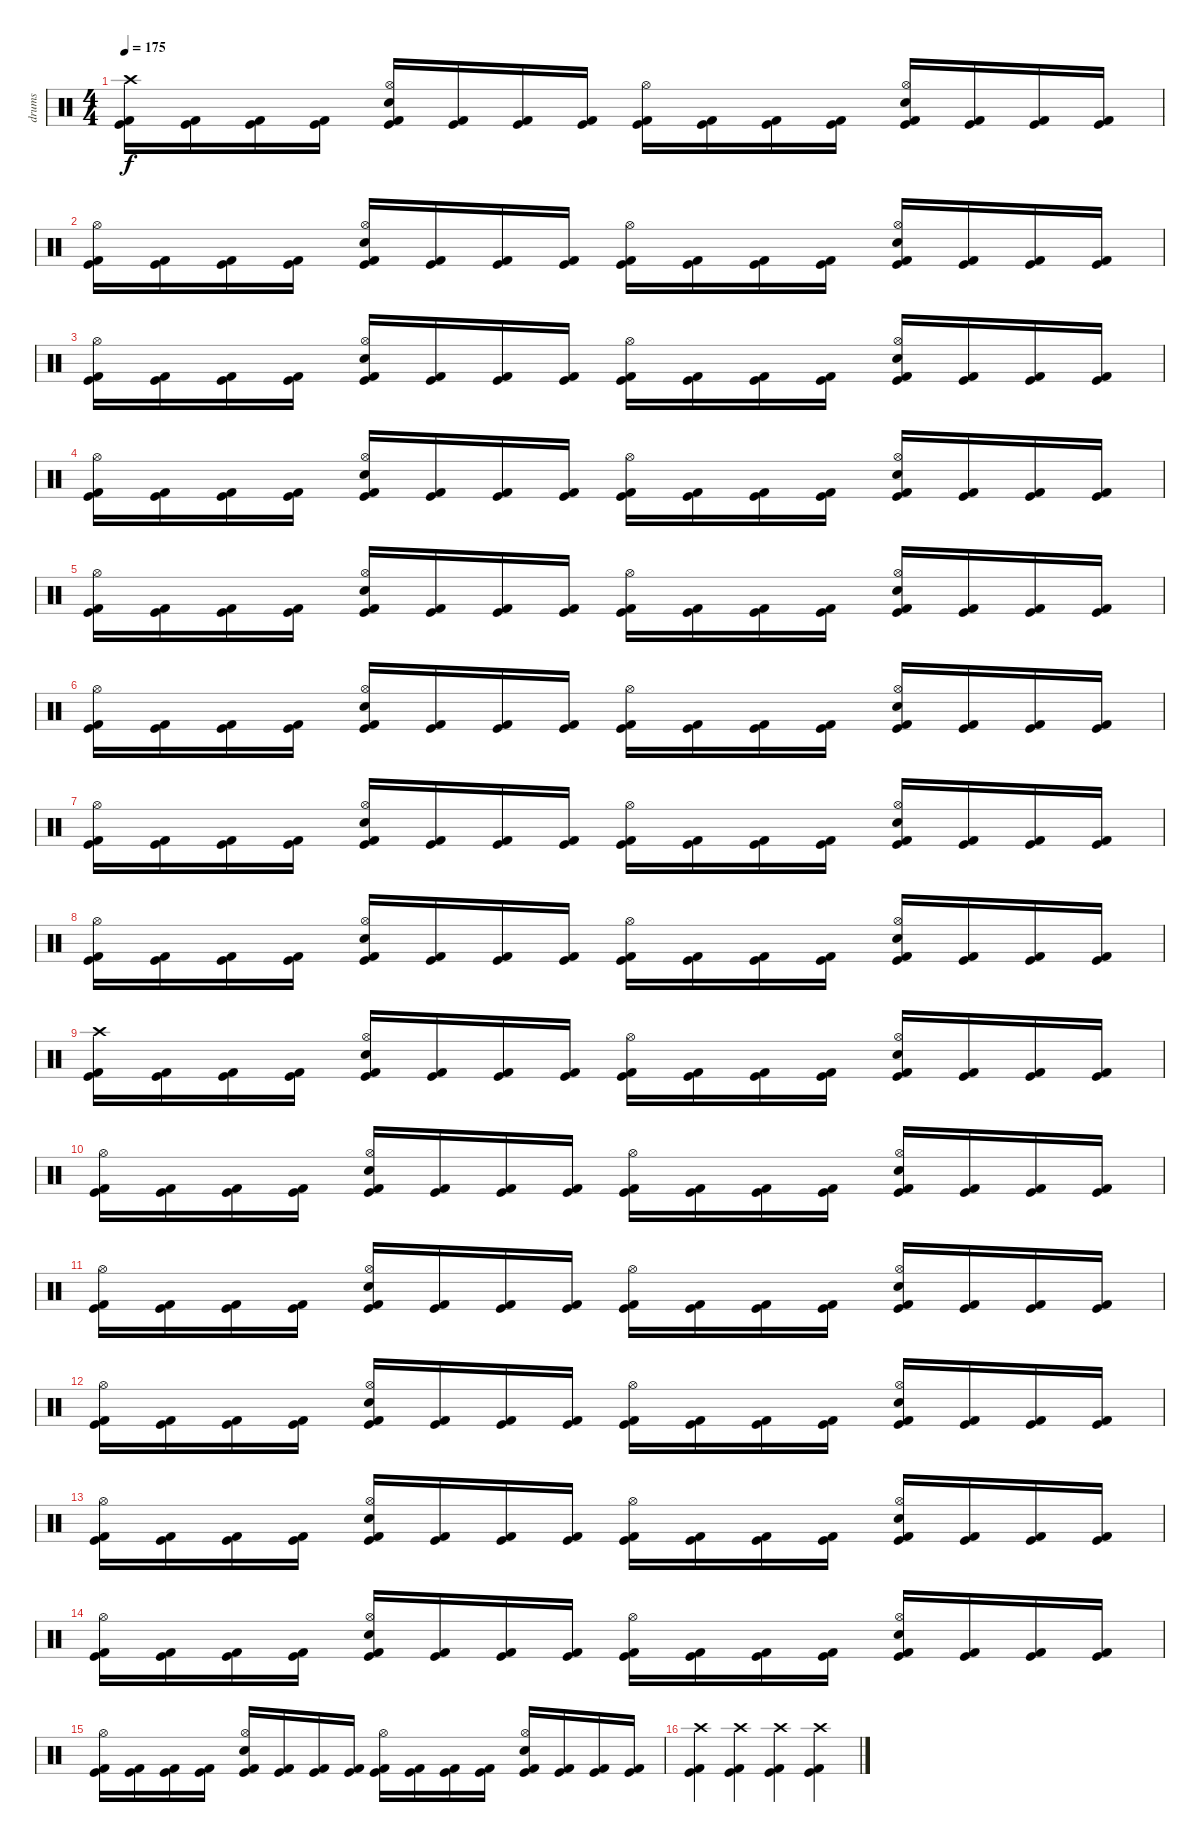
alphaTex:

\track ("drums" "drums") {instrument percussion}
\staff {score}
\articulation defaults
\ts (4 4)
\tempo 175
\clef neutral
\ks c
("Crash high (hit)" "Kick (hit)" "Kick (hit) 2").16{dy f} ("Kick (hit)" "Kick (hit) 2").16 ("Kick (hit)" "Kick (hit) 2").16 ("Kick (hit)" "Kick (hit) 2").16 ("Hi-Hat (open)" "Electric Snare (hit)" "Kick (hit)" "Kick (hit) 2").16 ("Kick (hit)" "Kick (hit) 2").16 ("Kick (hit)" "Kick (hit) 2").16 ("Kick (hit)" "Kick (hit) 2").16 ("Hi-Hat (open)" "Kick (hit)" "Kick (hit) 2").16 ("Kick (hit)" "Kick (hit) 2").16 ("Kick (hit)" "Kick (hit) 2").16 ("Kick (hit)" "Kick (hit) 2").16 ("Hi-Hat (open)" "Electric Snare (hit)" "Kick (hit)" "Kick (hit) 2").16 ("Kick (hit)" "Kick (hit) 2").16 ("Kick (hit)" "Kick (hit) 2").16 ("Kick (hit)" "Kick (hit) 2").16 |
("Hi-Hat (open)" "Kick (hit)" "Kick (hit) 2").16 ("Kick (hit)" "Kick (hit) 2").16 ("Kick (hit)" "Kick (hit) 2").16 ("Kick (hit)" "Kick (hit) 2").16 ("Hi-Hat (open)" "Electric Snare (hit)" "Kick (hit)" "Kick (hit) 2").16 ("Kick (hit)" "Kick (hit) 2").16 ("Kick (hit)" "Kick (hit) 2").16 ("Kick (hit)" "Kick (hit) 2").16 ("Hi-Hat (open)" "Kick (hit)" "Kick (hit) 2").16 ("Kick (hit)" "Kick (hit) 2").16 ("Kick (hit)" "Kick (hit) 2").16 ("Kick (hit)" "Kick (hit) 2").16 ("Hi-Hat (open)" "Electric Snare (hit)" "Kick (hit)" "Kick (hit) 2").16 ("Kick (hit)" "Kick (hit) 2").16 ("Kick (hit)" "Kick (hit) 2").16 ("Kick (hit)" "Kick (hit) 2").16 |
("Hi-Hat (open)" "Kick (hit)" "Kick (hit) 2").16 ("Kick (hit)" "Kick (hit) 2").16 ("Kick (hit)" "Kick (hit) 2").16 ("Kick (hit)" "Kick (hit) 2").16 ("Hi-Hat (open)" "Electric Snare (hit)" "Kick (hit)" "Kick (hit) 2").16 ("Kick (hit)" "Kick (hit) 2").16 ("Kick (hit)" "Kick (hit) 2").16 ("Kick (hit)" "Kick (hit) 2").16 ("Hi-Hat (open)" "Kick (hit)" "Kick (hit) 2").16 ("Kick (hit)" "Kick (hit) 2").16 ("Kick (hit)" "Kick (hit) 2").16 ("Kick (hit)" "Kick (hit) 2").16 ("Hi-Hat (open)" "Electric Snare (hit)" "Kick (hit)" "Kick (hit) 2").16 ("Kick (hit)" "Kick (hit) 2").16 ("Kick (hit)" "Kick (hit) 2").16 ("Kick (hit)" "Kick (hit) 2").16 |
("Hi-Hat (open)" "Kick (hit)" "Kick (hit) 2").16 ("Kick (hit)" "Kick (hit) 2").16 ("Kick (hit)" "Kick (hit) 2").16 ("Kick (hit)" "Kick (hit) 2").16 ("Hi-Hat (open)" "Electric Snare (hit)" "Kick (hit)" "Kick (hit) 2").16 ("Kick (hit)" "Kick (hit) 2").16 ("Kick (hit)" "Kick (hit) 2").16 ("Kick (hit)" "Kick (hit) 2").16 ("Hi-Hat (open)" "Kick (hit)" "Kick (hit) 2").16 ("Kick (hit)" "Kick (hit) 2").16 ("Kick (hit)" "Kick (hit) 2").16 ("Kick (hit)" "Kick (hit) 2").16 ("Hi-Hat (open)" "Electric Snare (hit)" "Kick (hit)" "Kick (hit) 2").16 ("Kick (hit)" "Kick (hit) 2").16 ("Kick (hit)" "Kick (hit) 2").16 ("Kick (hit)" "Kick (hit) 2").16 |
("Hi-Hat (open)" "Kick (hit)" "Kick (hit) 2").16 ("Kick (hit)" "Kick (hit) 2").16 ("Kick (hit)" "Kick (hit) 2").16 ("Kick (hit)" "Kick (hit) 2").16 ("Hi-Hat (open)" "Electric Snare (hit)" "Kick (hit)" "Kick (hit) 2").16 ("Kick (hit)" "Kick (hit) 2").16 ("Kick (hit)" "Kick (hit) 2").16 ("Kick (hit)" "Kick (hit) 2").16 ("Hi-Hat (open)" "Kick (hit)" "Kick (hit) 2").16 ("Kick (hit)" "Kick (hit) 2").16 ("Kick (hit)" "Kick (hit) 2").16 ("Kick (hit)" "Kick (hit) 2").16 ("Hi-Hat (open)" "Electric Snare (hit)" "Kick (hit)" "Kick (hit) 2").16 ("Kick (hit)" "Kick (hit) 2").16 ("Kick (hit)" "Kick (hit) 2").16 ("Kick (hit)" "Kick (hit) 2").16 |
("Hi-Hat (open)" "Kick (hit)" "Kick (hit) 2").16 ("Kick (hit)" "Kick (hit) 2").16 ("Kick (hit)" "Kick (hit) 2").16 ("Kick (hit)" "Kick (hit) 2").16 ("Hi-Hat (open)" "Electric Snare (hit)" "Kick (hit)" "Kick (hit) 2").16 ("Kick (hit)" "Kick (hit) 2").16 ("Kick (hit)" "Kick (hit) 2").16 ("Kick (hit)" "Kick (hit) 2").16 ("Hi-Hat (open)" "Kick (hit)" "Kick (hit) 2").16 ("Kick (hit)" "Kick (hit) 2").16 ("Kick (hit)" "Kick (hit) 2").16 ("Kick (hit)" "Kick (hit) 2").16 ("Hi-Hat (open)" "Electric Snare (hit)" "Kick (hit)" "Kick (hit) 2").16 ("Kick (hit)" "Kick (hit) 2").16 ("Kick (hit)" "Kick (hit) 2").16 ("Kick (hit)" "Kick (hit) 2").16 |
("Hi-Hat (open)" "Kick (hit)" "Kick (hit) 2").16 ("Kick (hit)" "Kick (hit) 2").16 ("Kick (hit)" "Kick (hit) 2").16 ("Kick (hit)" "Kick (hit) 2").16 ("Hi-Hat (open)" "Electric Snare (hit)" "Kick (hit)" "Kick (hit) 2").16 ("Kick (hit)" "Kick (hit) 2").16 ("Kick (hit)" "Kick (hit) 2").16 ("Kick (hit)" "Kick (hit) 2").16 ("Hi-Hat (open)" "Kick (hit)" "Kick (hit) 2").16 ("Kick (hit)" "Kick (hit) 2").16 ("Kick (hit)" "Kick (hit) 2").16 ("Kick (hit)" "Kick (hit) 2").16 ("Hi-Hat (open)" "Electric Snare (hit)" "Kick (hit)" "Kick (hit) 2").16 ("Kick (hit)" "Kick (hit) 2").16 ("Kick (hit)" "Kick (hit) 2").16 ("Kick (hit)" "Kick (hit) 2").16 |
("Hi-Hat (open)" "Kick (hit)" "Kick (hit) 2").16 ("Kick (hit)" "Kick (hit) 2").16 ("Kick (hit)" "Kick (hit) 2").16 ("Kick (hit)" "Kick (hit) 2").16 ("Hi-Hat (open)" "Electric Snare (hit)" "Kick (hit)" "Kick (hit) 2").16 ("Kick (hit)" "Kick (hit) 2").16 ("Kick (hit)" "Kick (hit) 2").16 ("Kick (hit)" "Kick (hit) 2").16 ("Hi-Hat (open)" "Kick (hit)" "Kick (hit) 2").16 ("Kick (hit)" "Kick (hit) 2").16 ("Kick (hit)" "Kick (hit) 2").16 ("Kick (hit)" "Kick (hit) 2").16 ("Hi-Hat (open)" "Electric Snare (hit)" "Kick (hit)" "Kick (hit) 2").16 ("Kick (hit)" "Kick (hit) 2").16 ("Kick (hit)" "Kick (hit) 2").16 ("Kick (hit)" "Kick (hit) 2").16 |
("Crash high (hit)" "Kick (hit)" "Kick (hit) 2").16 ("Kick (hit)" "Kick (hit) 2").16 ("Kick (hit)" "Kick (hit) 2").16 ("Kick (hit)" "Kick (hit) 2").16 ("Hi-Hat (open)" "Electric Snare (hit)" "Kick (hit)" "Kick (hit) 2").16 ("Kick (hit)" "Kick (hit) 2").16 ("Kick (hit)" "Kick (hit) 2").16 ("Kick (hit)" "Kick (hit) 2").16 ("Hi-Hat (open)" "Kick (hit)" "Kick (hit) 2").16 ("Kick (hit)" "Kick (hit) 2").16 ("Kick (hit)" "Kick (hit) 2").16 ("Kick (hit)" "Kick (hit) 2").16 ("Hi-Hat (open)" "Electric Snare (hit)" "Kick (hit)" "Kick (hit) 2").16 ("Kick (hit)" "Kick (hit) 2").16 ("Kick (hit)" "Kick (hit) 2").16 ("Kick (hit)" "Kick (hit) 2").16 |
("Hi-Hat (open)" "Kick (hit)" "Kick (hit) 2").16 ("Kick (hit)" "Kick (hit) 2").16 ("Kick (hit)" "Kick (hit) 2").16 ("Kick (hit)" "Kick (hit) 2").16 ("Hi-Hat (open)" "Electric Snare (hit)" "Kick (hit)" "Kick (hit) 2").16 ("Kick (hit)" "Kick (hit) 2").16 ("Kick (hit)" "Kick (hit) 2").16 ("Kick (hit)" "Kick (hit) 2").16 ("Hi-Hat (open)" "Kick (hit)" "Kick (hit) 2").16 ("Kick (hit)" "Kick (hit) 2").16 ("Kick (hit)" "Kick (hit) 2").16 ("Kick (hit)" "Kick (hit) 2").16 ("Hi-Hat (open)" "Electric Snare (hit)" "Kick (hit)" "Kick (hit) 2").16 ("Kick (hit)" "Kick (hit) 2").16 ("Kick (hit)" "Kick (hit) 2").16 ("Kick (hit)" "Kick (hit) 2").16 |
("Hi-Hat (open)" "Kick (hit)" "Kick (hit) 2").16 ("Kick (hit)" "Kick (hit) 2").16 ("Kick (hit)" "Kick (hit) 2").16 ("Kick (hit)" "Kick (hit) 2").16 ("Hi-Hat (open)" "Electric Snare (hit)" "Kick (hit)" "Kick (hit) 2").16 ("Kick (hit)" "Kick (hit) 2").16 ("Kick (hit)" "Kick (hit) 2").16 ("Kick (hit)" "Kick (hit) 2").16 ("Hi-Hat (open)" "Kick (hit)" "Kick (hit) 2").16 ("Kick (hit)" "Kick (hit) 2").16 ("Kick (hit)" "Kick (hit) 2").16 ("Kick (hit)" "Kick (hit) 2").16 ("Hi-Hat (open)" "Electric Snare (hit)" "Kick (hit)" "Kick (hit) 2").16 ("Kick (hit)" "Kick (hit) 2").16 ("Kick (hit)" "Kick (hit) 2").16 ("Kick (hit)" "Kick (hit) 2").16 |
("Hi-Hat (open)" "Kick (hit)" "Kick (hit) 2").16 ("Kick (hit)" "Kick (hit) 2").16 ("Kick (hit)" "Kick (hit) 2").16 ("Kick (hit)" "Kick (hit) 2").16 ("Hi-Hat (open)" "Electric Snare (hit)" "Kick (hit)" "Kick (hit) 2").16 ("Kick (hit)" "Kick (hit) 2").16 ("Kick (hit)" "Kick (hit) 2").16 ("Kick (hit)" "Kick (hit) 2").16 ("Hi-Hat (open)" "Kick (hit)" "Kick (hit) 2").16 ("Kick (hit)" "Kick (hit) 2").16 ("Kick (hit)" "Kick (hit) 2").16 ("Kick (hit)" "Kick (hit) 2").16 ("Hi-Hat (open)" "Electric Snare (hit)" "Kick (hit)" "Kick (hit) 2").16 ("Kick (hit)" "Kick (hit) 2").16 ("Kick (hit)" "Kick (hit) 2").16 ("Kick (hit)" "Kick (hit) 2").16 |
("Hi-Hat (open)" "Kick (hit)" "Kick (hit) 2").16 ("Kick (hit)" "Kick (hit) 2").16 ("Kick (hit)" "Kick (hit) 2").16 ("Kick (hit)" "Kick (hit) 2").16 ("Hi-Hat (open)" "Electric Snare (hit)" "Kick (hit)" "Kick (hit) 2").16 ("Kick (hit)" "Kick (hit) 2").16 ("Kick (hit)" "Kick (hit) 2").16 ("Kick (hit)" "Kick (hit) 2").16 ("Hi-Hat (open)" "Kick (hit)" "Kick (hit) 2").16 ("Kick (hit)" "Kick (hit) 2").16 ("Kick (hit)" "Kick (hit) 2").16 ("Kick (hit)" "Kick (hit) 2").16 ("Hi-Hat (open)" "Electric Snare (hit)" "Kick (hit)" "Kick (hit) 2").16 ("Kick (hit)" "Kick (hit) 2").16 ("Kick (hit)" "Kick (hit) 2").16 ("Kick (hit)" "Kick (hit) 2").16 |
("Hi-Hat (open)" "Kick (hit)" "Kick (hit) 2").16 ("Kick (hit)" "Kick (hit) 2").16 ("Kick (hit)" "Kick (hit) 2").16 ("Kick (hit)" "Kick (hit) 2").16 ("Hi-Hat (open)" "Electric Snare (hit)" "Kick (hit)" "Kick (hit) 2").16 ("Kick (hit)" "Kick (hit) 2").16 ("Kick (hit)" "Kick (hit) 2").16 ("Kick (hit)" "Kick (hit) 2").16 ("Hi-Hat (open)" "Kick (hit)" "Kick (hit) 2").16 ("Kick (hit)" "Kick (hit) 2").16 ("Kick (hit)" "Kick (hit) 2").16 ("Kick (hit)" "Kick (hit) 2").16 ("Hi-Hat (open)" "Electric Snare (hit)" "Kick (hit)" "Kick (hit) 2").16 ("Kick (hit)" "Kick (hit) 2").16 ("Kick (hit)" "Kick (hit) 2").16 ("Kick (hit)" "Kick (hit) 2").16 |
("Hi-Hat (open)" "Kick (hit)" "Kick (hit) 2").16 ("Kick (hit)" "Kick (hit) 2").16 ("Kick (hit)" "Kick (hit) 2").16 ("Kick (hit)" "Kick (hit) 2").16 ("Hi-Hat (open)" "Electric Snare (hit)" "Kick (hit)" "Kick (hit) 2").16 ("Kick (hit)" "Kick (hit) 2").16 ("Kick (hit)" "Kick (hit) 2").16 ("Kick (hit)" "Kick (hit) 2").16 ("Hi-Hat (open)" "Kick (hit)" "Kick (hit) 2").16 ("Kick (hit)" "Kick (hit) 2").16 ("Kick (hit)" "Kick (hit) 2").16 ("Kick (hit)" "Kick (hit) 2").16 ("Hi-Hat (open)" "Electric Snare (hit)" "Kick (hit)" "Kick (hit) 2").16 ("Kick (hit)" "Kick (hit) 2").16 ("Kick (hit)" "Kick (hit) 2").16 ("Kick (hit)" "Kick (hit) 2").16 |
("Crash high (hit)" "Kick (hit)" "Kick (hit) 2").4 ("Crash high (hit)" "Kick (hit)" "Kick (hit) 2").4 ("Crash high (hit)" "Kick (hit)" "Kick (hit) 2").4 ("Crash high (hit)" "Kick (hit)" "Kick (hit) 2").4
